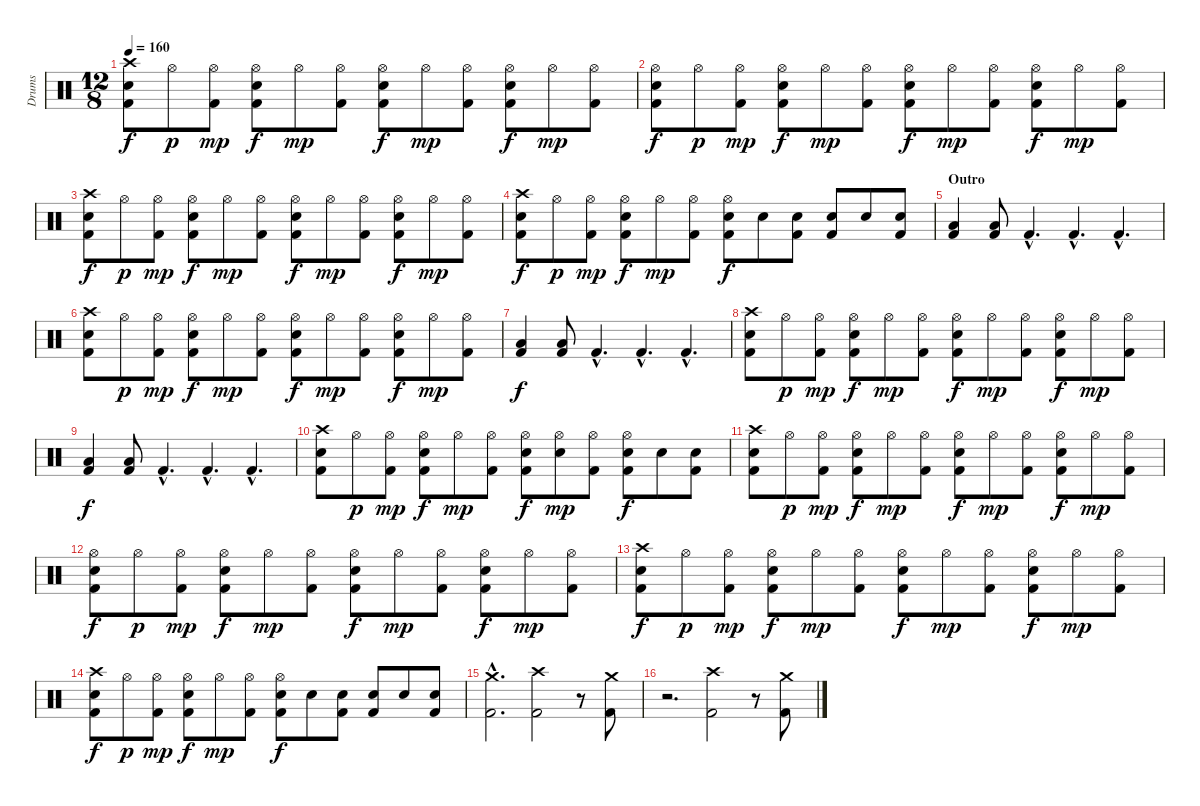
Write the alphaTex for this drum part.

\track ("Drums" "Drums") {instrument percussion}
\staff {score}
\articulation defaults
\ts (12 8)
\tempo 160
\clef neutral
\ks c
("Crash high (hit)" "Electric Snare (hit)" "Kick (hit) 2").8{dy f} "Hi-Hat (open)".8{dy p} ("Hi-Hat (open)" "Kick (hit) 2").8{dy mp} ("Hi-Hat (open)" "Electric Snare (hit)" "Kick (hit) 2").8{dy f} "Hi-Hat (open)".8{dy mp} ("Hi-Hat (open)" "Kick (hit) 2").8 ("Hi-Hat (open)" "Electric Snare (hit)" "Kick (hit) 2").8{dy f} "Hi-Hat (open)".8{dy mp} ("Hi-Hat (open)" "Kick (hit) 2").8 ("Hi-Hat (open)" "Electric Snare (hit)" "Kick (hit) 2").8{dy f} "Hi-Hat (open)".8{dy mp} ("Hi-Hat (open)" "Kick (hit) 2").8 |
("Hi-Hat (open)" "Electric Snare (hit)" "Kick (hit) 2").8{dy f} "Hi-Hat (open)".8{dy p} ("Hi-Hat (open)" "Kick (hit) 2").8{dy mp} ("Hi-Hat (open)" "Electric Snare (hit)" "Kick (hit) 2").8{dy f} "Hi-Hat (open)".8{dy mp} ("Hi-Hat (open)" "Kick (hit) 2").8 ("Hi-Hat (open)" "Electric Snare (hit)" "Kick (hit) 2").8{dy f} "Hi-Hat (open)".8{dy mp} ("Hi-Hat (open)" "Kick (hit) 2").8 ("Hi-Hat (open)" "Electric Snare (hit)" "Kick (hit) 2").8{dy f} "Hi-Hat (open)".8{dy mp} ("Hi-Hat (open)" "Kick (hit) 2").8 |
("Crash high (hit)" "Electric Snare (hit)" "Kick (hit) 2").8{dy f} "Hi-Hat (open)".8{dy p} ("Hi-Hat (open)" "Kick (hit) 2").8{dy mp} ("Hi-Hat (open)" "Electric Snare (hit)" "Kick (hit) 2").8{dy f} "Hi-Hat (open)".8{dy mp} ("Hi-Hat (open)" "Kick (hit) 2").8 ("Hi-Hat (open)" "Electric Snare (hit)" "Kick (hit) 2").8{dy f} "Hi-Hat (open)".8{dy mp} ("Hi-Hat (open)" "Kick (hit) 2").8 ("Hi-Hat (open)" "Electric Snare (hit)" "Kick (hit) 2").8{dy f} "Hi-Hat (open)".8{dy mp} ("Hi-Hat (open)" "Kick (hit) 2").8 |
("Crash high (hit)" "Electric Snare (hit)" "Kick (hit) 2").8{dy f} "Hi-Hat (open)".8{dy p} ("Hi-Hat (open)" "Kick (hit) 2").8{dy mp} ("Hi-Hat (open)" "Electric Snare (hit)" "Kick (hit) 2").8{dy f} "Hi-Hat (open)".8{dy mp} ("Hi-Hat (open)" "Kick (hit) 2").8 ("Hi-Hat (open)" "Electric Snare (hit)" "Kick (hit) 2").8{dy f} "Electric Snare (hit)".8 ("Electric Snare (hit)" "Kick (hit) 2").8 ("Electric Snare (hit)" "Kick (hit) 2").8 "Electric Snare (hit)".8 ("Electric Snare (hit)" "Kick (hit) 2").8 |
\section ("" "Outro")
("Low Tom (hit)" "Kick (hit) 2").4 ("Low Tom (hit)" "Kick (hit) 2").8 "Kick (hit) 2"{hac}.4{d} "Kick (hit) 2"{hac}.4{d} "Kick (hit) 2"{hac}.4{d} |
("Crash high (hit)" "Electric Snare (hit)" "Kick (hit) 2").8 "Hi-Hat (open)".8{dy p} ("Hi-Hat (open)" "Kick (hit) 2").8{dy mp} ("Hi-Hat (open)" "Electric Snare (hit)" "Kick (hit) 2").8{dy f} "Hi-Hat (open)".8{dy mp} ("Hi-Hat (open)" "Kick (hit) 2").8 ("Hi-Hat (open)" "Electric Snare (hit)" "Kick (hit) 2").8{dy f} "Hi-Hat (open)".8{dy mp} ("Hi-Hat (open)" "Kick (hit) 2").8 ("Hi-Hat (open)" "Electric Snare (hit)" "Kick (hit) 2").8{dy f} "Hi-Hat (open)".8{dy mp} ("Hi-Hat (open)" "Kick (hit) 2").8 |
("Low Tom (hit)" "Kick (hit) 2").4{dy f} ("Low Tom (hit)" "Kick (hit) 2").8 "Kick (hit) 2"{hac}.4{d} "Kick (hit) 2"{hac}.4{d} "Kick (hit) 2"{hac}.4{d} |
("Crash high (hit)" "Electric Snare (hit)" "Kick (hit) 2").8 "Hi-Hat (open)".8{dy p} ("Hi-Hat (open)" "Kick (hit) 2").8{dy mp} ("Hi-Hat (open)" "Electric Snare (hit)" "Kick (hit) 2").8{dy f} "Hi-Hat (open)".8{dy mp} ("Hi-Hat (open)" "Kick (hit) 2").8 ("Hi-Hat (open)" "Electric Snare (hit)" "Kick (hit) 2").8{dy f} "Hi-Hat (open)".8{dy mp} ("Hi-Hat (open)" "Kick (hit) 2").8 ("Hi-Hat (open)" "Electric Snare (hit)" "Kick (hit) 2").8{dy f} "Hi-Hat (open)".8{dy mp} ("Hi-Hat (open)" "Kick (hit) 2").8 |
("Low Tom (hit)" "Kick (hit) 2").4{dy f} ("Low Tom (hit)" "Kick (hit) 2").8 "Kick (hit) 2"{hac}.4{d} "Kick (hit) 2"{hac}.4{d} "Kick (hit) 2"{hac}.4{d} |
("Crash high (hit)" "Electric Snare (hit)" "Kick (hit) 2").8 "Hi-Hat (open)".8{dy p} ("Hi-Hat (open)" "Kick (hit) 2").8{dy mp} ("Hi-Hat (open)" "Electric Snare (hit)" "Kick (hit) 2").8{dy f} "Hi-Hat (open)".8{dy mp} ("Hi-Hat (open)" "Kick (hit) 2").8 ("Hi-Hat (open)" "Electric Snare (hit)" "Kick (hit) 2").8{dy f} ("Hi-Hat (open)" "Electric Snare (hit)").8{dy mp} ("Hi-Hat (open)" "Kick (hit) 2").8 ("Hi-Hat (open)" "Electric Snare (hit)" "Kick (hit) 2").8{dy f} "Electric Snare (hit)".8 ("Electric Snare (hit)" "Kick (hit) 2").8 |
("Crash high (hit)" "Electric Snare (hit)" "Kick (hit) 2").8 "Hi-Hat (open)".8{dy p} ("Hi-Hat (open)" "Kick (hit) 2").8{dy mp} ("Hi-Hat (open)" "Electric Snare (hit)" "Kick (hit) 2").8{dy f} "Hi-Hat (open)".8{dy mp} ("Hi-Hat (open)" "Kick (hit) 2").8 ("Hi-Hat (open)" "Electric Snare (hit)" "Kick (hit) 2").8{dy f} "Hi-Hat (open)".8{dy mp} ("Hi-Hat (open)" "Kick (hit) 2").8 ("Hi-Hat (open)" "Electric Snare (hit)" "Kick (hit) 2").8{dy f} "Hi-Hat (open)".8{dy mp} ("Hi-Hat (open)" "Kick (hit) 2").8 |
("Hi-Hat (open)" "Electric Snare (hit)" "Kick (hit) 2").8{dy f} "Hi-Hat (open)".8{dy p} ("Hi-Hat (open)" "Kick (hit) 2").8{dy mp} ("Hi-Hat (open)" "Electric Snare (hit)" "Kick (hit) 2").8{dy f} "Hi-Hat (open)".8{dy mp} ("Hi-Hat (open)" "Kick (hit) 2").8 ("Hi-Hat (open)" "Electric Snare (hit)" "Kick (hit) 2").8{dy f} "Hi-Hat (open)".8{dy mp} ("Hi-Hat (open)" "Kick (hit) 2").8 ("Hi-Hat (open)" "Electric Snare (hit)" "Kick (hit) 2").8{dy f} "Hi-Hat (open)".8{dy mp} ("Hi-Hat (open)" "Kick (hit) 2").8 |
("Crash high (hit)" "Electric Snare (hit)" "Kick (hit) 2").8{dy f} "Hi-Hat (open)".8{dy p} ("Hi-Hat (open)" "Kick (hit) 2").8{dy mp} ("Hi-Hat (open)" "Electric Snare (hit)" "Kick (hit) 2").8{dy f} "Hi-Hat (open)".8{dy mp} ("Hi-Hat (open)" "Kick (hit) 2").8 ("Hi-Hat (open)" "Electric Snare (hit)" "Kick (hit) 2").8{dy f} "Hi-Hat (open)".8{dy mp} ("Hi-Hat (open)" "Kick (hit) 2").8 ("Hi-Hat (open)" "Electric Snare (hit)" "Kick (hit) 2").8{dy f} "Hi-Hat (open)".8{dy mp} ("Hi-Hat (open)" "Kick (hit) 2").8 |
("Crash high (hit)" "Electric Snare (hit)" "Kick (hit) 2").8{dy f} "Hi-Hat (open)".8{dy p} ("Hi-Hat (open)" "Kick (hit) 2").8{dy mp} ("Hi-Hat (open)" "Electric Snare (hit)" "Kick (hit) 2").8{dy f} "Hi-Hat (open)".8{dy mp} ("Hi-Hat (open)" "Kick (hit) 2").8 ("Hi-Hat (open)" "Electric Snare (hit)" "Kick (hit) 2").8{dy f} "Electric Snare (hit)".8 ("Electric Snare (hit)" "Kick (hit) 2").8 ("Electric Snare (hit)" "Kick (hit) 2").8 "Electric Snare (hit)".8 ("Electric Snare (hit)" "Kick (hit) 2").8 |
("Crash medium (hit)"{hac} "Kick (hit) 2"{hac}).2{d} ("Crash high (hit)" "Kick (hit) 2").2 r.8 ("Crash medium (hit)" "Kick (hit) 2").8 |
r.2{d} ("Crash high (hit)" "Kick (hit) 2").2 r.8 ("Crash medium (hit)" "Kick (hit) 2").8
